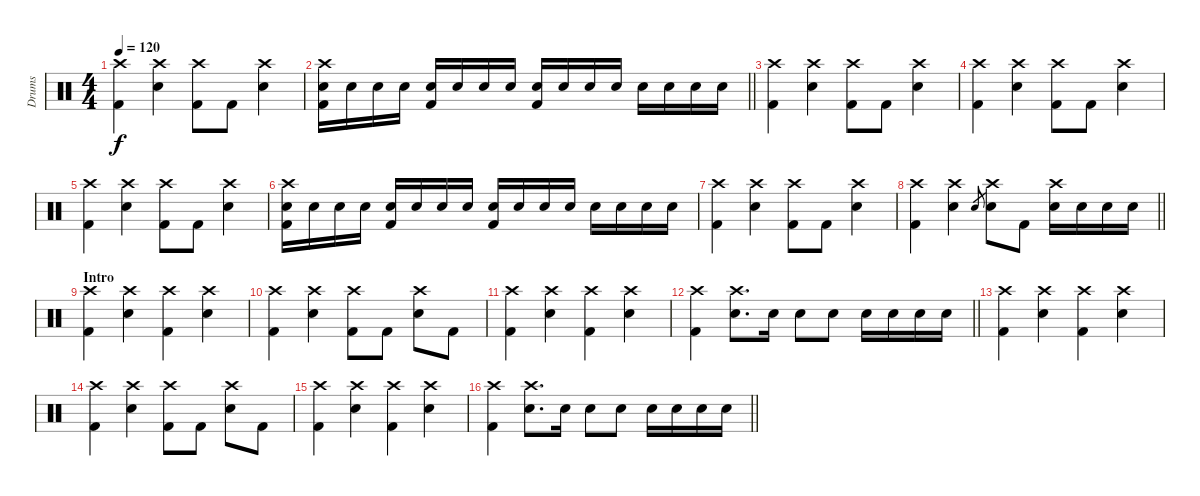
\track ("Drums" "Drums") {instrument percussion}
\staff {score}
\articulation defaults
\ts (4 4)
\tempo 120
\clef neutral
\ks c
("Crash high (hit)" "Kick (hit) 2").4{dy f} ("Crash high (hit)" "Electric Snare (hit)").4 ("Crash high (hit)" "Kick (hit) 2").8 "Kick (hit) 2".8 ("Crash high (hit)" "Electric Snare (hit)").4 |
\barLineRight lightlight
("Crash high (hit)" "Electric Snare (hit)" "Kick (hit) 2").16 "Electric Snare (hit)".16 "Electric Snare (hit)".16 "Electric Snare (hit)".16 ("Electric Snare (hit)" "Kick (hit) 2").16 "Electric Snare (hit)".16 "Electric Snare (hit)".16 "Electric Snare (hit)".16 ("Electric Snare (hit)" "Kick (hit) 2").16 "Electric Snare (hit)".16 "Electric Snare (hit)".16 "Electric Snare (hit)".16 "Electric Snare (hit)".16 "Electric Snare (hit)".16 "Electric Snare (hit)".16 "Electric Snare (hit)".16 |
("Crash high (hit)" "Kick (hit) 2").4 ("Crash high (hit)" "Electric Snare (hit)").4 ("Crash high (hit)" "Kick (hit) 2").8 "Kick (hit) 2".8 ("Crash high (hit)" "Electric Snare (hit)").4 |
("Crash high (hit)" "Kick (hit) 2").4 ("Crash high (hit)" "Electric Snare (hit)").4 ("Crash high (hit)" "Kick (hit) 2").8 "Kick (hit) 2".8 ("Crash high (hit)" "Electric Snare (hit)").4 |
("Crash high (hit)" "Kick (hit) 2").4 ("Crash high (hit)" "Electric Snare (hit)").4 ("Crash high (hit)" "Kick (hit) 2").8 "Kick (hit) 2".8 ("Crash high (hit)" "Electric Snare (hit)").4 |
("Crash high (hit)" "Electric Snare (hit)" "Kick (hit) 2").16 "Electric Snare (hit)".16 "Electric Snare (hit)".16 "Electric Snare (hit)".16 ("Electric Snare (hit)" "Kick (hit) 2").16 "Electric Snare (hit)".16 "Electric Snare (hit)".16 "Electric Snare (hit)".16 ("Electric Snare (hit)" "Kick (hit) 2").16 "Electric Snare (hit)".16 "Electric Snare (hit)".16 "Electric Snare (hit)".16 "Electric Snare (hit)".16 "Electric Snare (hit)".16 "Electric Snare (hit)".16 "Electric Snare (hit)".16 |
("Crash high (hit)" "Kick (hit) 2").4 ("Crash high (hit)" "Electric Snare (hit)").4 ("Crash high (hit)" "Kick (hit) 2").8 "Kick (hit) 2".8 ("Crash high (hit)" "Electric Snare (hit)").4 |
\barLineRight lightlight
("Crash high (hit)" "Kick (hit) 2").4 ("Crash high (hit)" "Electric Snare (hit)").4 "Electric Snare (hit)".8{gr} ("Crash high (hit)" "Electric Snare (hit)").8 "Kick (hit) 2".8 ("Crash high (hit)" "Electric Snare (hit)").16 "Electric Snare (hit)".16 "Electric Snare (hit)".16 "Electric Snare (hit)".16 |
\section ("" "Intro")
("Crash high (hit)" "Kick (hit) 2").4 ("Crash high (hit)" "Electric Snare (hit)").4 ("Crash high (hit)" "Kick (hit) 2").4 ("Crash high (hit)" "Electric Snare (hit)").4 |
("Crash high (hit)" "Kick (hit) 2").4 ("Crash high (hit)" "Electric Snare (hit)").4 ("Crash high (hit)" "Kick (hit) 2").8 "Kick (hit) 2".8 ("Crash high (hit)" "Electric Snare (hit)").8 "Kick (hit) 2".8 |
("Crash high (hit)" "Kick (hit) 2").4 ("Crash high (hit)" "Electric Snare (hit)").4 ("Crash high (hit)" "Kick (hit) 2").4 ("Crash high (hit)" "Electric Snare (hit)").4 |
\barLineRight lightlight
("Crash high (hit)" "Kick (hit) 2").4 ("Crash high (hit)" "Electric Snare (hit)").8{d} "Electric Snare (hit)".16 "Electric Snare (hit)".8 "Electric Snare (hit)".8 "Electric Snare (hit)".16 "Electric Snare (hit)".16 "Electric Snare (hit)".16 "Electric Snare (hit)".16 |
("Crash high (hit)" "Kick (hit) 2").4 ("Crash high (hit)" "Electric Snare (hit)").4 ("Crash high (hit)" "Kick (hit) 2").4 ("Crash high (hit)" "Electric Snare (hit)").4 |
("Crash high (hit)" "Kick (hit) 2").4 ("Crash high (hit)" "Electric Snare (hit)").4 ("Crash high (hit)" "Kick (hit) 2").8 "Kick (hit) 2".8 ("Crash high (hit)" "Electric Snare (hit)").8 "Kick (hit) 2".8 |
("Crash high (hit)" "Kick (hit) 2").4 ("Crash high (hit)" "Electric Snare (hit)").4 ("Crash high (hit)" "Kick (hit) 2").4 ("Crash high (hit)" "Electric Snare (hit)").4 |
\barLineRight lightlight
("Crash high (hit)" "Kick (hit) 2").4 ("Crash high (hit)" "Electric Snare (hit)").8{d} "Electric Snare (hit)".16 "Electric Snare (hit)".8 "Electric Snare (hit)".8 "Electric Snare (hit)".16 "Electric Snare (hit)".16 "Electric Snare (hit)".16 "Electric Snare (hit)".16
